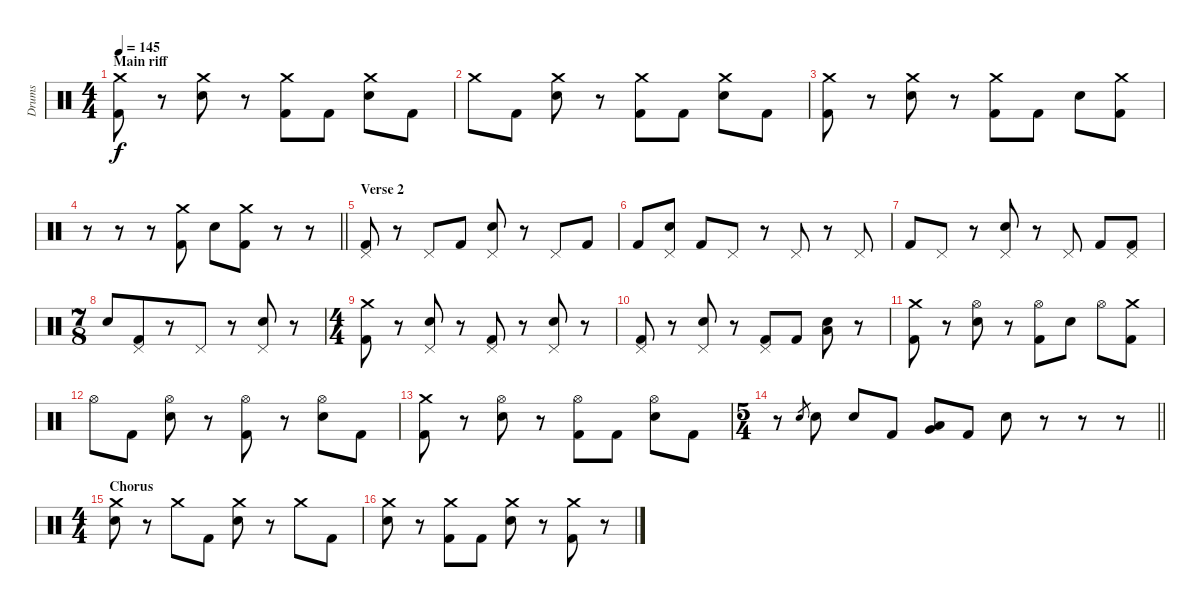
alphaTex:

\track ("Drums" "Drums") {instrument percussion}
\staff {score}
\articulation defaults
\ts (4 4)
\section ("" "Main riff")
\tempo 145
\clef neutral
\ks c
("Crash medium (hit)" "Kick (hit) 2").8{dy f} r.8 ("Crash medium (hit)" "Electric Snare (hit)").8 r.8 ("Crash medium (hit)" "Kick (hit) 2").8 "Kick (hit) 2".8 ("Crash medium (hit)" "Electric Snare (hit)").8 "Kick (hit) 2".8 |
"Crash medium (hit)".8 "Kick (hit) 2".8 ("Crash medium (hit)" "Electric Snare (hit)").8 r.8 ("Crash medium (hit)" "Kick (hit) 2").8 "Kick (hit) 2".8 ("Crash medium (hit)" "Electric Snare (hit)").8 "Kick (hit) 2".8 |
("Crash medium (hit)" "Kick (hit) 2").8 r.8 ("Crash medium (hit)" "Electric Snare (hit)").8 r.8 ("Crash medium (hit)" "Kick (hit) 2").8 "Kick (hit) 2".8 "Electric Snare (hit)".8 ("Crash medium (hit)" "Kick (hit) 2").8 |
\barLineRight lightlight
r.8 r.8 r.8 ("Crash medium (hit)" "Kick (hit) 2").8 "Electric Snare (hit)".8 ("Crash medium (hit)" "Kick (hit) 2").8 r.8 r.8 |
\section ("" "Verse 2")
("Pedal Hi-Hat (hit)" "Kick (hit) 2").8 r.8 "Pedal Hi-Hat (hit)".8 "Kick (hit) 2".8 ("Pedal Hi-Hat (hit)" "Electric Snare (hit)").8 r.8 "Pedal Hi-Hat (hit)".8 "Kick (hit) 2".8 |
"Kick (hit) 2".8 ("Pedal Hi-Hat (hit)" "Electric Snare (hit)").8 "Kick (hit) 2".8 "Pedal Hi-Hat (hit)".8 r.8 "Pedal Hi-Hat (hit)".8 r.8 "Pedal Hi-Hat (hit)".8 |
"Kick (hit) 2".8 "Pedal Hi-Hat (hit)".8 r.8 ("Pedal Hi-Hat (hit)" "Electric Snare (hit)").8 r.8 "Pedal Hi-Hat (hit)".8 "Kick (hit) 2".8 ("Pedal Hi-Hat (hit)" "Kick (hit) 2").8 |
\ts (7 8)
"Electric Snare (hit)".8 ("Pedal Hi-Hat (hit)" "Kick (hit) 2").8 r.8 "Pedal Hi-Hat (hit)".8 r.8 ("Pedal Hi-Hat (hit)" "Electric Snare (hit)").8 r.8 |
\ts (4 4)
("Crash medium (hit)" "Kick (hit) 2").8 r.8 ("Pedal Hi-Hat (hit)" "Electric Snare (hit)").8 r.8 ("Pedal Hi-Hat (hit)" "Kick (hit) 2").8 r.8 ("Pedal Hi-Hat (hit)" "Electric Snare (hit)").8 r.8 |
("Pedal Hi-Hat (hit)" "Kick (hit) 2").8 r.8 ("Pedal Hi-Hat (hit)" "Electric Snare (hit)").8 r.8 ("Pedal Hi-Hat (hit)" "Kick (hit) 2").8 "Kick (hit) 2".8 ("Low Floor Tom (hit)" "Electric Snare (hit)").8 r.8 |
("Crash medium (hit)" "Kick (hit) 2").8 r.8 ("Hi-Hat (open)" "Electric Snare (hit)").8 r.8 ("Hi-Hat (open)" "Kick (hit) 2").8 "Electric Snare (hit)".8 "Hi-Hat (open)".8 ("Crash medium (hit)" "Kick (hit) 2").8 |
"Hi-Hat (open)".8 "Kick (hit) 2".8 ("Hi-Hat (open)" "Electric Snare (hit)").8 r.8 ("Hi-Hat (open)" "Kick (hit) 2").8 r.8 ("Hi-Hat (open)" "Electric Snare (hit)").8 "Kick (hit) 2".8 |
("Crash medium (hit)" "Kick (hit) 2").8 r.8 ("Hi-Hat (open)" "Electric Snare (hit)").8 r.8 ("Hi-Hat (open)" "Kick (hit) 2").8 "Kick (hit) 2".8 ("Hi-Hat (open)" "Electric Snare (hit)").8 "Kick (hit) 2".8 |
\ts (5 4)
\barLineRight lightlight
r.8 "Electric Snare (hit)".8{gr} "Electric Snare (hit)".8 "Electric Snare (hit)".8 "Kick (hit) 2".8 ("Low Tom (hit)" "Very Low Tom (hit)").8 "Kick (hit) 2".8 "Electric Snare (hit)".8 r.8 r.8 r.8 |
\ts (4 4)
\section ("" "Chorus")
("Crash medium (hit)" "Electric Snare (hit)").8 r.8 "Crash medium (hit)".8 "Kick (hit) 2".8 ("Crash medium (hit)" "Electric Snare (hit)").8 r.8 "Crash medium (hit)".8 "Kick (hit) 2".8 |
("Crash medium (hit)" "Electric Snare (hit)").8 r.8 ("Crash medium (hit)" "Kick (hit) 2").8 "Kick (hit) 2".8 ("Crash medium (hit)" "Electric Snare (hit)").8 r.8 ("Crash medium (hit)" "Kick (hit) 2").8 r.8
